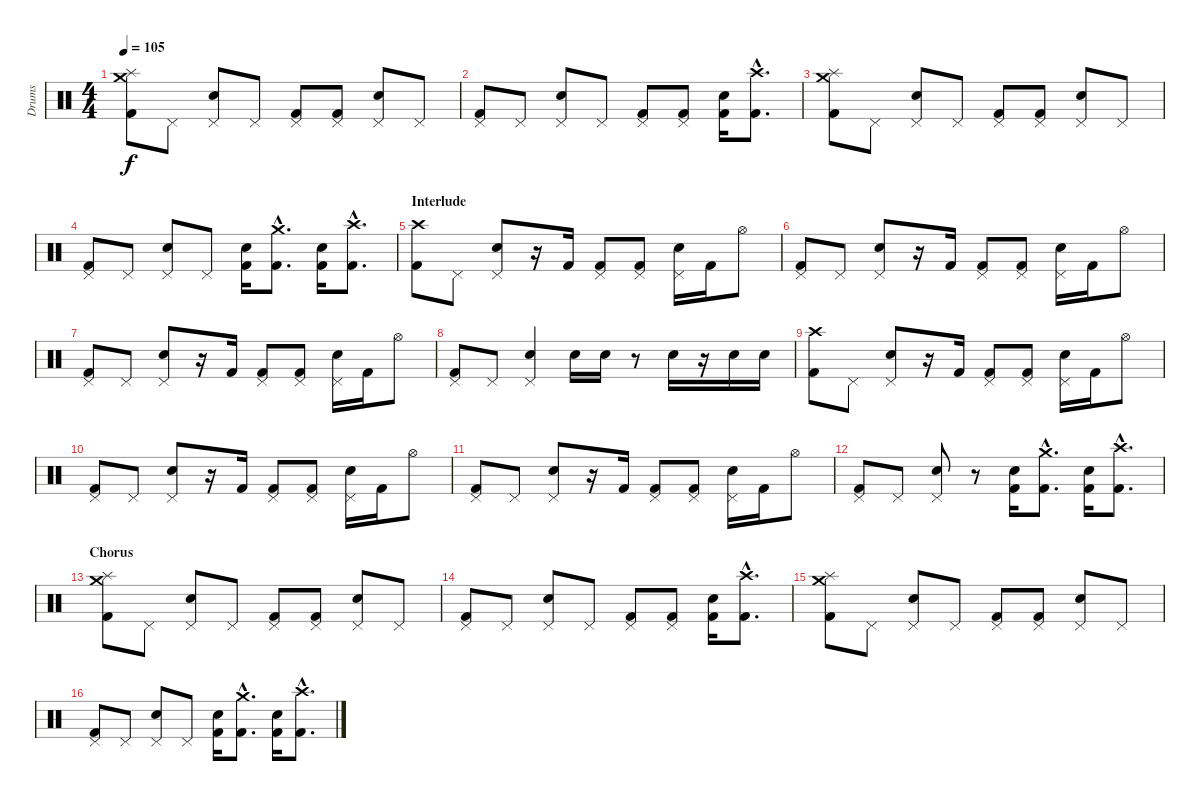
\track ("Drums" "Drums") {instrument percussion}
\staff {score}
\articulation defaults
\ts (4 4)
\tempo 105
\clef neutral
\ks c
("Crash medium (hit)" "Splash (hit)" "Kick (hit) 2").8{dy f} "Pedal Hi-Hat (hit)".8 ("Pedal Hi-Hat (hit)" "Electric Snare (hit)").8 "Pedal Hi-Hat (hit)".8 ("Pedal Hi-Hat (hit)" "Kick (hit) 2").8 ("Pedal Hi-Hat (hit)" "Kick (hit) 2").8 ("Pedal Hi-Hat (hit)" "Electric Snare (hit)").8 "Pedal Hi-Hat (hit)".8 |
("Pedal Hi-Hat (hit)" "Kick (hit) 2").8 "Pedal Hi-Hat (hit)".8 ("Pedal Hi-Hat (hit)" "Electric Snare (hit)").8 "Pedal Hi-Hat (hit)".8 ("Pedal Hi-Hat (hit)" "Kick (hit) 2").8 ("Pedal Hi-Hat (hit)" "Kick (hit) 2").8 ("Electric Snare (hit)" "Kick (hit) 2").16 ("Crash high (hit)"{hac} "Kick (hit) 2"{hac}).8{d} |
("Crash medium (hit)" "Splash (hit)" "Kick (hit) 2").8 "Pedal Hi-Hat (hit)".8 ("Pedal Hi-Hat (hit)" "Electric Snare (hit)").8 "Pedal Hi-Hat (hit)".8 ("Pedal Hi-Hat (hit)" "Kick (hit) 2").8 ("Pedal Hi-Hat (hit)" "Kick (hit) 2").8 ("Pedal Hi-Hat (hit)" "Electric Snare (hit)").8 "Pedal Hi-Hat (hit)".8 |
("Pedal Hi-Hat (hit)" "Kick (hit) 2").8 "Pedal Hi-Hat (hit)".8 ("Pedal Hi-Hat (hit)" "Electric Snare (hit)").8 "Pedal Hi-Hat (hit)".8 ("Electric Snare (hit)" "Kick (hit) 2").16 ("Crash medium (hit)"{hac} "Kick (hit) 2"{hac}).8{d} ("Electric Snare (hit)" "Kick (hit) 2").16 ("Crash high (hit)"{hac} "Kick (hit) 2"{hac}).8{d} |
\section ("" "Interlude")
("Crash high (hit)" "Kick (hit) 2").8 "Pedal Hi-Hat (hit)".8 ("Pedal Hi-Hat (hit)" "Electric Snare (hit)").8 r.16 "Kick (hit) 2".16 ("Pedal Hi-Hat (hit)" "Kick (hit) 2").8 ("Pedal Hi-Hat (hit)" "Kick (hit) 2").8 ("Pedal Hi-Hat (hit)" "Electric Snare (hit)").16 "Kick (hit) 2".16 "Hi-Hat (open)".8 |
("Pedal Hi-Hat (hit)" "Kick (hit) 2").8 "Pedal Hi-Hat (hit)".8 ("Pedal Hi-Hat (hit)" "Electric Snare (hit)").8 r.16 "Kick (hit) 2".16 ("Pedal Hi-Hat (hit)" "Kick (hit) 2").8 ("Pedal Hi-Hat (hit)" "Kick (hit) 2").8 ("Pedal Hi-Hat (hit)" "Electric Snare (hit)").16 "Kick (hit) 2".16 "Hi-Hat (open)".8 |
("Pedal Hi-Hat (hit)" "Kick (hit) 2").8 "Pedal Hi-Hat (hit)".8 ("Pedal Hi-Hat (hit)" "Electric Snare (hit)").8 r.16 "Kick (hit) 2".16 ("Pedal Hi-Hat (hit)" "Kick (hit) 2").8 ("Pedal Hi-Hat (hit)" "Kick (hit) 2").8 ("Pedal Hi-Hat (hit)" "Electric Snare (hit)").16 "Kick (hit) 2".16 "Hi-Hat (open)".8 |
("Pedal Hi-Hat (hit)" "Kick (hit) 2").8 "Pedal Hi-Hat (hit)".8 ("Pedal Hi-Hat (hit)" "Electric Snare (hit)").4 "Electric Snare (hit)".16 "Electric Snare (hit)".16 r.8 "Electric Snare (hit)".16 r.16 "Electric Snare (hit)".16 "Electric Snare (hit)".16 |
("Crash high (hit)" "Kick (hit) 2").8 "Pedal Hi-Hat (hit)".8 ("Pedal Hi-Hat (hit)" "Electric Snare (hit)").8 r.16 "Kick (hit) 2".16 ("Pedal Hi-Hat (hit)" "Kick (hit) 2").8 ("Pedal Hi-Hat (hit)" "Kick (hit) 2").8 ("Pedal Hi-Hat (hit)" "Electric Snare (hit)").16 "Kick (hit) 2".16 "Hi-Hat (open)".8 |
("Pedal Hi-Hat (hit)" "Kick (hit) 2").8 "Pedal Hi-Hat (hit)".8 ("Pedal Hi-Hat (hit)" "Electric Snare (hit)").8 r.16 "Kick (hit) 2".16 ("Pedal Hi-Hat (hit)" "Kick (hit) 2").8 ("Pedal Hi-Hat (hit)" "Kick (hit) 2").8 ("Pedal Hi-Hat (hit)" "Electric Snare (hit)").16 "Kick (hit) 2".16 "Hi-Hat (open)".8 |
("Pedal Hi-Hat (hit)" "Kick (hit) 2").8 "Pedal Hi-Hat (hit)".8 ("Pedal Hi-Hat (hit)" "Electric Snare (hit)").8 r.16 "Kick (hit) 2".16 ("Pedal Hi-Hat (hit)" "Kick (hit) 2").8 ("Pedal Hi-Hat (hit)" "Kick (hit) 2").8 ("Pedal Hi-Hat (hit)" "Electric Snare (hit)").16 "Kick (hit) 2".16 "Hi-Hat (open)".8 |
("Pedal Hi-Hat (hit)" "Kick (hit) 2").8 "Pedal Hi-Hat (hit)".8 ("Pedal Hi-Hat (hit)" "Electric Snare (hit)").8 r.8 ("Electric Snare (hit)" "Kick (hit) 2").16 ("Crash medium (hit)"{hac} "Kick (hit) 2"{hac}).8{d} ("Electric Snare (hit)" "Kick (hit) 2").16 ("Crash high (hit)"{hac} "Kick (hit) 2"{hac}).8{d} |
\section ("" "Chorus")
("Crash medium (hit)" "Splash (hit)" "Kick (hit) 2").8 "Pedal Hi-Hat (hit)".8 ("Pedal Hi-Hat (hit)" "Electric Snare (hit)").8 "Pedal Hi-Hat (hit)".8 ("Pedal Hi-Hat (hit)" "Kick (hit) 2").8 ("Pedal Hi-Hat (hit)" "Kick (hit) 2").8 ("Pedal Hi-Hat (hit)" "Electric Snare (hit)").8 "Pedal Hi-Hat (hit)".8 |
("Pedal Hi-Hat (hit)" "Kick (hit) 2").8 "Pedal Hi-Hat (hit)".8 ("Pedal Hi-Hat (hit)" "Electric Snare (hit)").8 "Pedal Hi-Hat (hit)".8 ("Pedal Hi-Hat (hit)" "Kick (hit) 2").8 ("Pedal Hi-Hat (hit)" "Kick (hit) 2").8 ("Electric Snare (hit)" "Kick (hit) 2").16 ("Crash high (hit)"{hac} "Kick (hit) 2"{hac}).8{d} |
("Crash medium (hit)" "Splash (hit)" "Kick (hit) 2").8 "Pedal Hi-Hat (hit)".8 ("Pedal Hi-Hat (hit)" "Electric Snare (hit)").8 "Pedal Hi-Hat (hit)".8 ("Pedal Hi-Hat (hit)" "Kick (hit) 2").8 ("Pedal Hi-Hat (hit)" "Kick (hit) 2").8 ("Pedal Hi-Hat (hit)" "Electric Snare (hit)").8 "Pedal Hi-Hat (hit)".8 |
("Pedal Hi-Hat (hit)" "Kick (hit) 2").8 "Pedal Hi-Hat (hit)".8 ("Pedal Hi-Hat (hit)" "Electric Snare (hit)").8 "Pedal Hi-Hat (hit)".8 ("Electric Snare (hit)" "Kick (hit) 2").16 ("Crash medium (hit)"{hac} "Kick (hit) 2"{hac}).8{d} ("Electric Snare (hit)" "Kick (hit) 2").16 ("Crash high (hit)"{hac} "Kick (hit) 2"{hac}).8{d}
